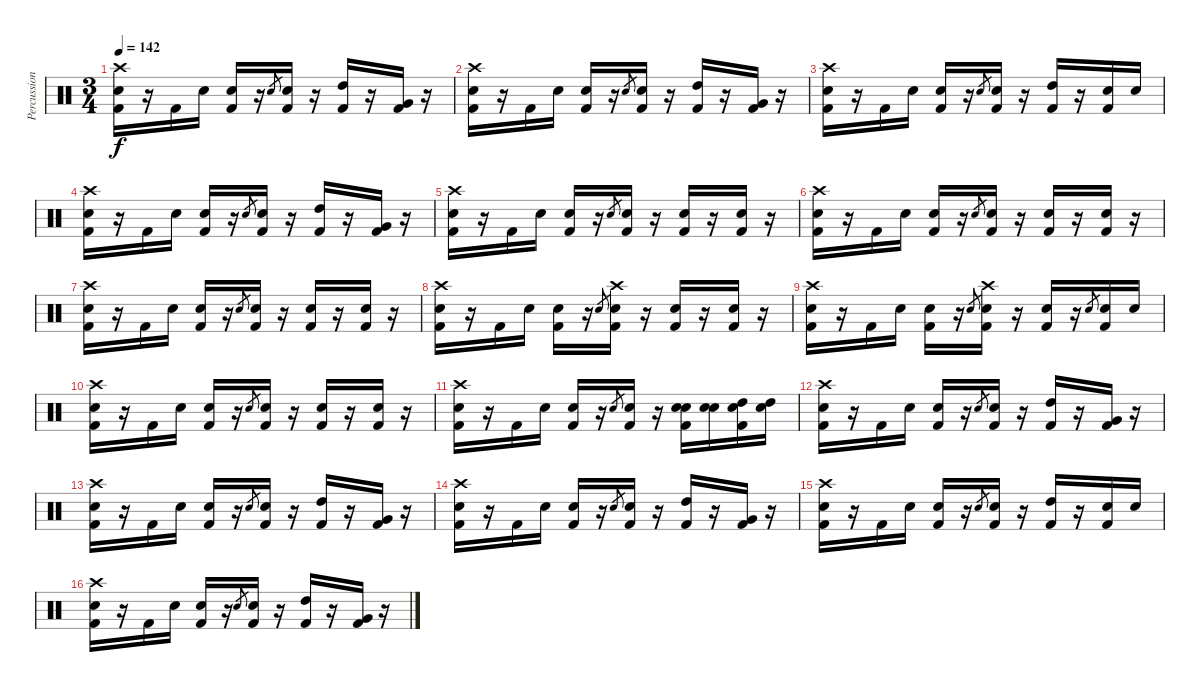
\track ("Percussion" "Percussion") {instrument percussion}
\staff {score}
\articulation defaults
\ts (3 4)
\tempo 142
\clef neutral
\ks c
("Crash high (hit)" "Snare (hit) 2" "Kick (hit) 2").16{dy f} r.16 "Kick (hit) 2".16 "Snare (hit) 2".16 ("Snare (hit) 2" "Kick (hit) 2").16 r.16 "Snare (hit) 2".8{gr} ("Snare (hit) 2" "Kick (hit) 2").16 r.16 ("High Tom (hit)" "Kick (hit) 2").16 r.16 ("Very Low Tom (hit)" "Kick (hit) 2").16 r.16 |
("Crash high (hit)" "Snare (hit) 2" "Kick (hit) 2").16 r.16 "Kick (hit) 2".16 "Snare (hit) 2".16 ("Snare (hit) 2" "Kick (hit) 2").16 r.16 "Snare (hit) 2".8{gr} ("Snare (hit) 2" "Kick (hit) 2").16 r.16 ("High Tom (hit)" "Kick (hit) 2").16 r.16 ("Very Low Tom (hit)" "Kick (hit) 2").16 r.16 |
("Crash high (hit)" "Snare (hit) 2" "Kick (hit) 2").16 r.16 "Kick (hit) 2".16 "Snare (hit) 2".16 ("Snare (hit) 2" "Kick (hit) 2").16 r.16 "Snare (hit) 2".8{gr} ("Snare (hit) 2" "Kick (hit) 2").16 r.16 ("High Tom (hit)" "Kick (hit) 2").16 r.16 ("Electric Snare (hit)" "Kick (hit) 2").16 "Electric Snare (hit)".16 |
("Crash high (hit)" "Snare (hit) 2" "Kick (hit) 2").16 r.16 "Kick (hit) 2".16 "Snare (hit) 2".16 ("Snare (hit) 2" "Kick (hit) 2").16 r.16 "Snare (hit) 2".8{gr} ("Snare (hit) 2" "Kick (hit) 2").16 r.16 ("High Tom (hit)" "Kick (hit) 2").16 r.16 ("Very Low Tom (hit)" "Kick (hit) 2").16 r.16 |
("Crash high (hit)" "Snare (hit) 2" "Kick (hit) 2").16 r.16 "Kick (hit) 2".16 "Snare (hit) 2".16 ("Snare (hit) 2" "Kick (hit) 2").16 r.16 "Snare (hit) 2".8{gr} ("Snare (hit) 2" "Kick (hit) 2").16 r.16 ("Snare (hit) 2" "Kick (hit) 2").16 r.16 ("Snare (hit) 2" "Kick (hit) 2").16 r.16 |
("Crash high (hit)" "Snare (hit) 2" "Kick (hit) 2").16 r.16 "Kick (hit) 2".16 "Snare (hit) 2".16 ("Snare (hit) 2" "Kick (hit) 2").16 r.16 "Snare (hit) 2".8{gr} ("Snare (hit) 2" "Kick (hit) 2").16 r.16 ("Snare (hit) 2" "Kick (hit) 2").16 r.16 ("Snare (hit) 2" "Kick (hit) 2").16 r.16 |
("Crash high (hit)" "Snare (hit) 2" "Kick (hit) 2").16 r.16 "Kick (hit) 2".16 "Snare (hit) 2".16 ("Snare (hit) 2" "Kick (hit) 2").16 r.16 "Snare (hit) 2".8{gr} ("Snare (hit) 2" "Kick (hit) 2").16 r.16 ("Snare (hit) 2" "Kick (hit) 2").16 r.16 ("Electric Snare (hit)" "Kick (hit) 2").16 r.16 |
("Crash high (hit)" "Snare (hit) 2" "Kick (hit) 2").16 r.16 "Kick (hit) 2".16 "Snare (hit) 2".16 ("Snare (hit) 2" "Kick (hit) 2").16 r.16 "Snare (hit) 2".8{gr} ("Crash high (hit)" "Snare (hit) 2" "Kick (hit) 2").16 r.16 ("Snare (hit) 2" "Kick (hit) 2").16 r.16 ("Snare (hit) 2" "Kick (hit) 2").16 r.16 |
("Crash high (hit)" "Snare (hit) 2" "Kick (hit) 2").16 r.16 "Kick (hit) 2".16 "Snare (hit) 2".16 ("Snare (hit) 2" "Kick (hit) 2").16 r.16 "Snare (hit) 2".8{gr} ("Crash high (hit)" "Snare (hit) 2" "Kick (hit) 2").16 r.16 ("Snare (hit) 2" "Kick (hit) 2").16 r.16 "Snare (hit) 2".8{gr} ("Snare (hit) 2" "Kick (hit) 2").16 "Electric Snare (hit)".16 |
("Crash high (hit)" "Snare (hit) 2" "Kick (hit) 2").16 r.16 "Kick (hit) 2".16 "Snare (hit) 2".16 ("Snare (hit) 2" "Kick (hit) 2").16 r.16 "Snare (hit) 2".8{gr} ("Snare (hit) 2" "Kick (hit) 2").16 r.16 ("Snare (hit) 2" "Kick (hit) 2").16 r.16 ("Snare (hit) 2" "Kick (hit) 2").16 r.16 |
("Crash high (hit)" "Snare (hit) 2" "Kick (hit) 2").16 r.16 "Kick (hit) 2".16 "Snare (hit) 2".16 ("Snare (hit) 2" "Kick (hit) 2").16 r.16 "Snare (hit) 2".8{gr} ("Snare (hit) 2" "Kick (hit) 2").16 r.16 ("Snare (hit) 2" "Electric Snare (hit)" "Kick (hit) 2").16 ("Snare (hit) 2" "Electric Snare (hit)").16 ("Snare (hit) 2" "High Tom (hit)" "Kick (hit) 2").16 ("Snare (hit) 2" "High Tom (hit)").16 |
("Crash high (hit)" "Snare (hit) 2" "Kick (hit) 2").16 r.16 "Kick (hit) 2".16 "Snare (hit) 2".16 ("Snare (hit) 2" "Kick (hit) 2").16 r.16 "Snare (hit) 2".8{gr} ("Snare (hit) 2" "Kick (hit) 2").16 r.16 ("High Tom (hit)" "Kick (hit) 2").16 r.16 ("Very Low Tom (hit)" "Kick (hit) 2").16 r.16 |
("Crash high (hit)" "Snare (hit) 2" "Kick (hit) 2").16 r.16 "Kick (hit) 2".16 "Snare (hit) 2".16 ("Snare (hit) 2" "Kick (hit) 2").16 r.16 "Snare (hit) 2".8{gr} ("Snare (hit) 2" "Kick (hit) 2").16 r.16 ("High Tom (hit)" "Kick (hit) 2").16 r.16 ("Very Low Tom (hit)" "Kick (hit) 2").16 r.16 |
("Crash high (hit)" "Snare (hit) 2" "Kick (hit) 2").16 r.16 "Kick (hit) 2".16 "Snare (hit) 2".16 ("Snare (hit) 2" "Kick (hit) 2").16 r.16 "Snare (hit) 2".8{gr} ("Snare (hit) 2" "Kick (hit) 2").16 r.16 ("High Tom (hit)" "Kick (hit) 2").16 r.16 ("Very Low Tom (hit)" "Kick (hit) 2").16 r.16 |
("Crash high (hit)" "Snare (hit) 2" "Kick (hit) 2").16 r.16 "Kick (hit) 2".16 "Snare (hit) 2".16 ("Snare (hit) 2" "Kick (hit) 2").16 r.16 "Snare (hit) 2".8{gr} ("Snare (hit) 2" "Kick (hit) 2").16 r.16 ("High Tom (hit)" "Kick (hit) 2").16 r.16 ("Electric Snare (hit)" "Kick (hit) 2").16 "Electric Snare (hit)".16 |
("Crash high (hit)" "Snare (hit) 2" "Kick (hit) 2").16 r.16 "Kick (hit) 2".16 "Snare (hit) 2".16 ("Snare (hit) 2" "Kick (hit) 2").16 r.16 "Snare (hit) 2".8{gr} ("Snare (hit) 2" "Kick (hit) 2").16 r.16 ("High Tom (hit)" "Kick (hit) 2").16 r.16 ("Very Low Tom (hit)" "Kick (hit) 2").16 r.16
